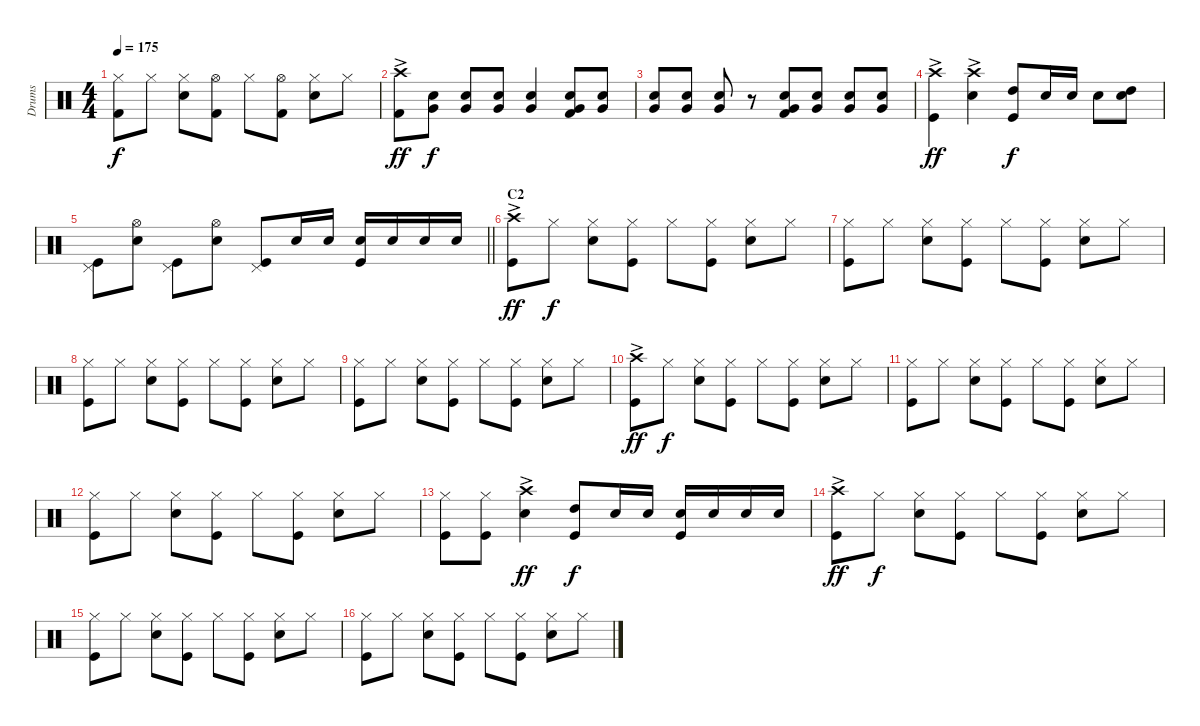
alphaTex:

\track ("Drums" "Drums") {instrument percussion}
\staff {score}
\articulation defaults
\ts (4 4)
\tempo 175
\clef neutral
\ks c
("Hi-Hat (closed)" "Kick (hit) 2").8{dy f} "Hi-Hat (closed)".8 ("Hi-Hat (closed)" "Snare (hit) 2").8 ("Hi-Hat (open)" "Kick (hit) 2").8 "Hi-Hat (closed)".8 ("Hi-Hat (open)" "Kick (hit) 2").8 ("Hi-Hat (closed)" "Snare (hit) 2").8 "Hi-Hat (closed)".8 |
("Crash high (hit)"{ac} "Kick (hit) 2").8{dy ff} ("Snare (hit) 2" "Very Low Tom (hit)").8{dy f} ("Snare (hit) 2" "Very Low Tom (hit)").8 ("Snare (hit) 2" "Very Low Tom (hit)").8 ("Snare (hit) 2" "Very Low Tom (hit)").4 ("Snare (hit) 2" "Very Low Tom (hit)" "Kick (hit) 2").8 ("Snare (hit) 2" "Very Low Tom (hit)").8 |
("Snare (hit) 2" "Very Low Tom (hit)").8 ("Snare (hit) 2" "Very Low Tom (hit)").8 ("Snare (hit) 2" "Very Low Tom (hit)").8 r.8 ("Snare (hit) 2" "Very Low Tom (hit)" "Kick (hit) 2").8 ("Snare (hit) 2" "Very Low Tom (hit)").8 ("Snare (hit) 2" "Very Low Tom (hit)").8 ("Snare (hit) 2" "Very Low Tom (hit)").8 |
("Crash high (hit)"{ac} "Kick (hit)").4{dy ff} ("Snare (hit) 2" "Crash high (hit)"{ac}).4 ("Kick (hit)" "High Tom (hit)").8{dy f} "Snare (hit) 2".16 "Snare (hit) 2".16 "Snare (hit) 2".8 ("Snare (hit) 2" "High Tom (hit)").8 |
\barLineRight lightlight
("Pedal Hi-Hat (hit)" "Kick (hit)").8 ("Snare (hit) 2" "Hi-Hat (open)").8 ("Kick (hit)" "Pedal Hi-Hat (hit)").8 ("Snare (hit) 2" "Hi-Hat (open)").8 ("Pedal Hi-Hat (hit)" "Kick (hit)").8 "Snare (hit) 2".16 "Snare (hit) 2".16 ("Kick (hit)" "Snare (hit) 2").16 "Snare (hit) 2".16 "Snare (hit) 2".16 "Snare (hit) 2".16 |
\section ("" "C2")
("Crash high (hit)"{ac} "Kick (hit)").8{dy ff} "Hi-Hat (closed)".8{dy f} ("Hi-Hat (closed)" "Snare (hit) 2").8 ("Hi-Hat (closed)" "Kick (hit)").8 "Hi-Hat (closed)".8 ("Hi-Hat (closed)" "Kick (hit)").8 ("Hi-Hat (closed)" "Snare (hit) 2").8 "Hi-Hat (closed)".8 |
("Hi-Hat (closed)" "Kick (hit)").8 "Hi-Hat (closed)".8 ("Hi-Hat (closed)" "Snare (hit) 2").8 ("Hi-Hat (closed)" "Kick (hit)").8 "Hi-Hat (closed)".8 ("Hi-Hat (closed)" "Kick (hit)").8 ("Hi-Hat (closed)" "Snare (hit) 2").8 "Hi-Hat (closed)".8 |
("Hi-Hat (closed)" "Kick (hit)").8 "Hi-Hat (closed)".8 ("Hi-Hat (closed)" "Snare (hit) 2").8 ("Hi-Hat (closed)" "Kick (hit)").8 "Hi-Hat (closed)".8 ("Hi-Hat (closed)" "Kick (hit)").8 ("Hi-Hat (closed)" "Snare (hit) 2").8 "Hi-Hat (closed)".8 |
("Hi-Hat (closed)" "Kick (hit)").8 "Hi-Hat (closed)".8 ("Hi-Hat (closed)" "Snare (hit) 2").8 ("Hi-Hat (closed)" "Kick (hit)").8 "Hi-Hat (closed)".8 ("Hi-Hat (closed)" "Kick (hit)").8 ("Hi-Hat (closed)" "Snare (hit) 2").8 "Hi-Hat (closed)".8 |
("Crash high (hit)"{ac} "Kick (hit)").8{dy ff} "Hi-Hat (closed)".8{dy f} ("Hi-Hat (closed)" "Snare (hit) 2").8 ("Hi-Hat (closed)" "Kick (hit)").8 "Hi-Hat (closed)".8 ("Hi-Hat (closed)" "Kick (hit)").8 ("Hi-Hat (closed)" "Snare (hit) 2").8 "Hi-Hat (closed)".8 |
("Hi-Hat (closed)" "Kick (hit)").8 "Hi-Hat (closed)".8 ("Hi-Hat (closed)" "Snare (hit) 2").8 ("Hi-Hat (closed)" "Kick (hit)").8 "Hi-Hat (closed)".8 ("Hi-Hat (closed)" "Kick (hit)").8 ("Hi-Hat (closed)" "Snare (hit) 2").8 "Hi-Hat (closed)".8 |
("Hi-Hat (closed)" "Kick (hit)").8 "Hi-Hat (closed)".8 ("Hi-Hat (closed)" "Snare (hit) 2").8 ("Hi-Hat (closed)" "Kick (hit)").8 "Hi-Hat (closed)".8 ("Hi-Hat (closed)" "Kick (hit)").8 ("Hi-Hat (closed)" "Snare (hit) 2").8 "Hi-Hat (closed)".8 |
("Hi-Hat (closed)" "Kick (hit)").8 ("Hi-Hat (closed)" "Kick (hit)").8 ("Crash high (hit)"{ac} "Snare (hit) 2").4{dy ff} ("High Tom (hit)" "Kick (hit)").8{dy f} "Snare (hit) 2".16 "Snare (hit) 2".16 ("Snare (hit) 2" "Kick (hit)").16 "Snare (hit) 2".16 "Snare (hit) 2".16 "Snare (hit) 2".16 |
("Crash high (hit)"{ac} "Kick (hit)").8{dy ff} "Hi-Hat (closed)".8{dy f} ("Hi-Hat (closed)" "Snare (hit) 2").8 ("Hi-Hat (closed)" "Kick (hit)").8 "Hi-Hat (closed)".8 ("Hi-Hat (closed)" "Kick (hit)").8 ("Hi-Hat (closed)" "Snare (hit) 2").8 "Hi-Hat (closed)".8 |
("Hi-Hat (closed)" "Kick (hit)").8 "Hi-Hat (closed)".8 ("Hi-Hat (closed)" "Snare (hit) 2").8 ("Hi-Hat (closed)" "Kick (hit)").8 "Hi-Hat (closed)".8 ("Hi-Hat (closed)" "Kick (hit)").8 ("Hi-Hat (closed)" "Snare (hit) 2").8 "Hi-Hat (closed)".8 |
("Hi-Hat (closed)" "Kick (hit)").8 "Hi-Hat (closed)".8 ("Hi-Hat (closed)" "Snare (hit) 2").8 ("Hi-Hat (closed)" "Kick (hit)").8 "Hi-Hat (closed)".8 ("Hi-Hat (closed)" "Kick (hit)").8 ("Hi-Hat (closed)" "Snare (hit) 2").8 "Hi-Hat (closed)".8
